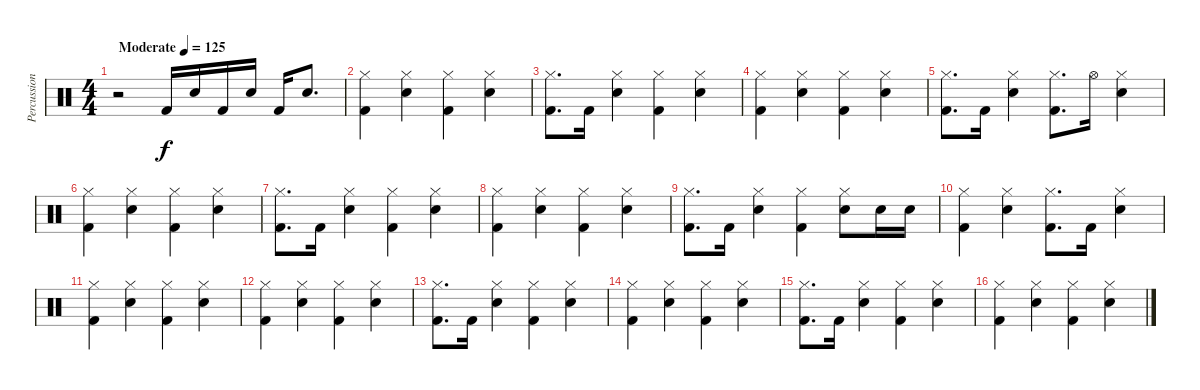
\track ("Percussion" "Percussion") {instrument percussion}
\staff {score}
\articulation defaults
\ts (4 4)
\tempo (125 "Moderate")
\clef neutral
\ks c
r.2{dy f} "Kick (hit) 2".16 "Electric Snare (hit)".16 "Kick (hit) 2".16 "Electric Snare (hit)".16 "Kick (hit) 2".16 "Electric Snare (hit)".8{d} |
("Hi-Hat (closed)" "Kick (hit) 2").4 ("Hi-Hat (closed)" "Electric Snare (hit)").4 ("Hi-Hat (closed)" "Kick (hit) 2").4 ("Hi-Hat (closed)" "Electric Snare (hit)").4 |
("Hi-Hat (closed)" "Kick (hit) 2").8{d} "Kick (hit) 2".16 ("Hi-Hat (closed)" "Electric Snare (hit)").4 ("Hi-Hat (closed)" "Kick (hit) 2").4 ("Hi-Hat (closed)" "Electric Snare (hit)").4 |
("Hi-Hat (closed)" "Kick (hit) 2").4 ("Hi-Hat (closed)" "Electric Snare (hit)").4 ("Hi-Hat (closed)" "Kick (hit) 2").4 ("Hi-Hat (closed)" "Electric Snare (hit)").4 |
("Hi-Hat (closed)" "Kick (hit) 2").8{d} "Kick (hit) 2".16 ("Hi-Hat (closed)" "Electric Snare (hit)").4 ("Hi-Hat (closed)" "Kick (hit) 2").8{d} "Hi-Hat (open)".16 ("Hi-Hat (closed)" "Electric Snare (hit)").4 |
("Hi-Hat (closed)" "Kick (hit) 2").4 ("Hi-Hat (closed)" "Electric Snare (hit)").4 ("Hi-Hat (closed)" "Kick (hit) 2").4 ("Hi-Hat (closed)" "Electric Snare (hit)").4 |
("Hi-Hat (closed)" "Kick (hit) 2").8{d} "Kick (hit) 2".16 ("Hi-Hat (closed)" "Electric Snare (hit)").4 ("Hi-Hat (closed)" "Kick (hit) 2").4 ("Hi-Hat (closed)" "Electric Snare (hit)").4 |
("Hi-Hat (closed)" "Kick (hit) 2").4 ("Hi-Hat (closed)" "Electric Snare (hit)").4 ("Hi-Hat (closed)" "Kick (hit) 2").4 ("Hi-Hat (closed)" "Electric Snare (hit)").4 |
("Hi-Hat (closed)" "Kick (hit) 2").8{d} "Kick (hit) 2".16 ("Hi-Hat (closed)" "Electric Snare (hit)").4 ("Hi-Hat (closed)" "Kick (hit) 2").4 ("Hi-Hat (closed)" "Electric Snare (hit)").8 "Electric Snare (hit)".16 "Electric Snare (hit)".16 |
("Hi-Hat (closed)" "Kick (hit) 2").4 ("Hi-Hat (closed)" "Electric Snare (hit)").4 ("Hi-Hat (closed)" "Kick (hit) 2").8{d} "Kick (hit) 2".16 ("Hi-Hat (closed)" "Electric Snare (hit)").4 |
("Hi-Hat (closed)" "Kick (hit) 2").4 ("Hi-Hat (closed)" "Electric Snare (hit)").4 ("Hi-Hat (closed)" "Kick (hit) 2").4 ("Hi-Hat (closed)" "Electric Snare (hit)").4 |
("Hi-Hat (closed)" "Kick (hit) 2").4 ("Hi-Hat (closed)" "Electric Snare (hit)").4 ("Hi-Hat (closed)" "Kick (hit) 2").4 ("Hi-Hat (closed)" "Electric Snare (hit)").4 |
("Hi-Hat (closed)" "Kick (hit) 2").8{d} "Kick (hit) 2".16 ("Hi-Hat (closed)" "Electric Snare (hit)").4 ("Hi-Hat (closed)" "Kick (hit) 2").4 ("Hi-Hat (closed)" "Electric Snare (hit)").4 |
("Hi-Hat (closed)" "Kick (hit) 2").4 ("Hi-Hat (closed)" "Electric Snare (hit)").4 ("Hi-Hat (closed)" "Kick (hit) 2").4 ("Hi-Hat (closed)" "Electric Snare (hit)").4 |
("Hi-Hat (closed)" "Kick (hit) 2").8{d} "Kick (hit) 2".16 ("Hi-Hat (closed)" "Electric Snare (hit)").4 ("Hi-Hat (closed)" "Kick (hit) 2").4 ("Hi-Hat (closed)" "Electric Snare (hit)").4 |
("Hi-Hat (closed)" "Kick (hit) 2").4 ("Hi-Hat (closed)" "Electric Snare (hit)").4 ("Hi-Hat (closed)" "Kick (hit) 2").4 ("Hi-Hat (closed)" "Electric Snare (hit)").4
